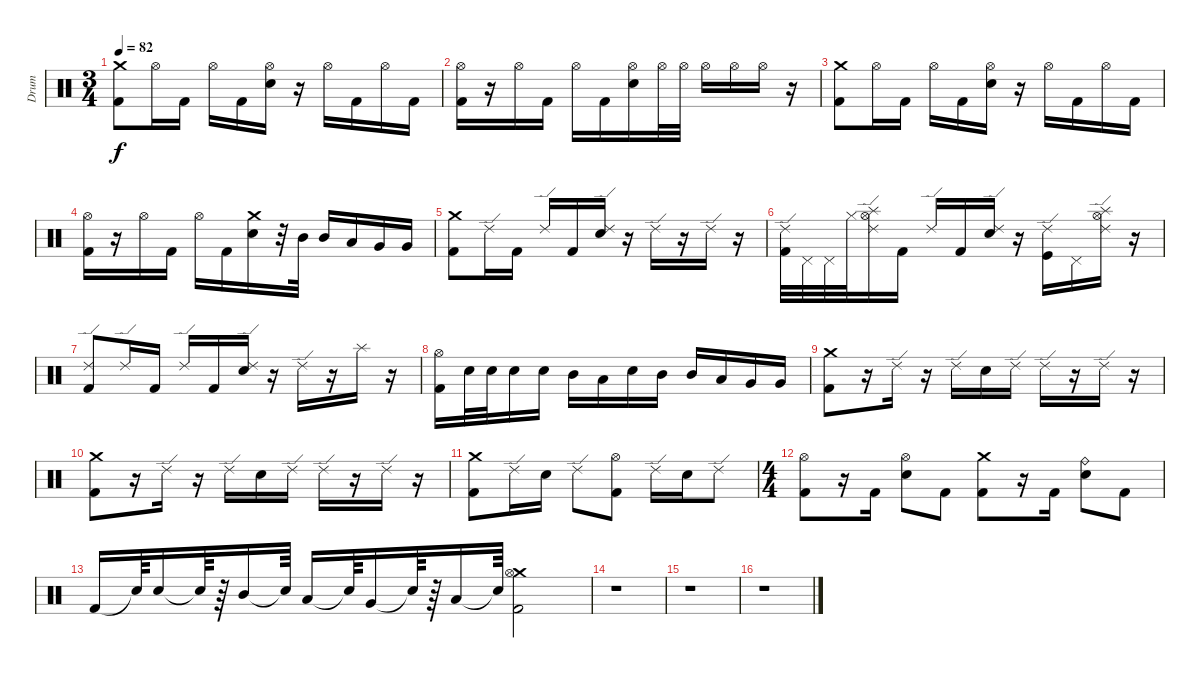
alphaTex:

\track ("Drum" "Drum") {instrument percussion}
\staff {score}
\articulation defaults
\ts (3 4)
\tempo 82
\clef neutral
\ks c
("Crash medium (hit)" "Kick (hit) 2").8{dy f} "Hi-Hat (open)".16 "Kick (hit) 2".16 "Hi-Hat (open)".16 "Kick (hit) 2".16 ("Hi-Hat (open)" "Electric Snare (hit)").16 r.16 "Hi-Hat (open)".16 "Kick (hit) 2".16 "Hi-Hat (open)".16 "Kick (hit) 2".16 |
("Hi-Hat (open)" "Kick (hit) 2").16 r.16 "Hi-Hat (open)".16 "Kick (hit) 2".16 "Hi-Hat (open)".16 "Kick (hit) 2".16 ("Hi-Hat (open)" "Electric Snare (hit)").16 "Hi-Hat (open)".32 "Hi-Hat (open)".32 "Hi-Hat (open)".16 "Hi-Hat (open)".16 "Hi-Hat (open)".16 r.16 |
("Crash medium (hit)" "Kick (hit) 2").8 "Hi-Hat (open)".16 "Kick (hit) 2".16 "Hi-Hat (open)".16 "Kick (hit) 2".16 ("Hi-Hat (open)" "Electric Snare (hit)").16 r.16 "Hi-Hat (open)".16 "Kick (hit) 2".16 "Hi-Hat (open)".16 "Kick (hit) 2".16 |
("Hi-Hat (open)" "Kick (hit) 2").16 r.16 "Hi-Hat (open)".16 "Kick (hit) 2".16 "Hi-Hat (open)".16 "Kick (hit) 2".16 ("Crash medium (hit)" "Electric Snare (hit)").16 r.32 "Mid Tom (hit)".32 "Mid Tom (hit)".16 "Low Tom (hit)".16 "Very Low Tom (hit)".16 "Very Low Tom (hit)".16 |
("Crash medium (hit)" "Kick (hit) 2").8 "Ride (edge) 2".16 "Kick (hit) 2".16 "Ride (edge) 2".16 "Kick (hit) 2".16 ("Ride (edge) 2" "Electric Snare (hit)").16 r.16 "Ride (edge) 2".16 r.16 "Ride (edge) 2".16 r.16 |
("Ride (edge) 2" "Kick (hit) 2").32 "Pedal Hi-Hat (hit)".32 "Pedal Hi-Hat (hit)".32 "Hi-Hat (closed)".32 ("Splash (hit)" "Hi-Hat (open)" "Ride (edge) 2").16 "Kick (hit) 2".16 "Ride (edge) 2".16 "Kick (hit) 2".16 ("Ride (edge) 2" "Electric Snare (hit)").16 r.16 ("Kick (hit)" "Ride (edge) 2").16 "Pedal Hi-Hat (hit)".16 ("Splash (hit)" "Hi-Hat (open)" "Ride (edge) 2").16 r.16 |
("Ride (edge) 2" "Kick (hit) 2").8 "Ride (edge) 2".16 "Kick (hit) 2".16 "Ride (edge) 2".16 "Kick (hit) 2".16 ("Ride (edge) 2" "Electric Snare (hit)").16 r.16 "Ride (edge) 2".16 r.16 "Splash (hit)".16 r.16 |
("Hi-Hat (open)" "Kick (hit) 2").16 "Electric Snare (hit)".32 "Electric Snare (hit)".32 "Electric Snare (hit)".16 "Electric Snare (hit)".16 "Mid Tom (hit)".16 "Low Tom (hit)".16 "Electric Snare (hit)".16 "Mid Tom (hit)".16 "Mid Tom (hit)".16 "Low Tom (hit)".16 "Very Low Tom (hit)".16 "Very Low Tom (hit)".16 |
("Crash medium (hit)" "Kick (hit) 2").8 r.16 "Ride (edge) 2".16 r.16 "Ride (edge) 2".16 "Electric Snare (hit)".16 "Ride (edge) 2".16 "Ride (edge) 2".16 r.16 "Ride (edge) 2".16 r.16 |
("Crash medium (hit)" "Kick (hit) 2").8 r.16 "Ride (edge) 2".16 r.16 "Ride (edge) 2".16 "Electric Snare (hit)".16 "Ride (edge) 2".16 "Ride (edge) 2".16 r.16 "Ride (edge) 2".16 r.16 |
("Crash medium (hit)" "Kick (hit) 2").8 "Ride (edge) 2".16 "Electric Snare (hit)".16 "Ride (edge) 2".8 ("Hi-Hat (open)" "Kick (hit) 2").8 "Ride (edge) 2".16 "Electric Snare (hit)".16 "Ride (edge) 2".8 |
\ts (4 4)
("Hi-Hat (open)" "Kick (hit) 2").8 r.16 "Kick (hit) 2".16 ("Hi-Hat (open)" "Electric Snare (hit)").8 "Kick (hit) 2".8 ("Kick (hit) 2" "Crash medium (hit)").8 r.16 "Kick (hit) 2".16 ("Ride (bell)" "Electric Snare (hit)").8 "Kick (hit) 2".8 |
"Kick (hit) 2".16 "Snare (hit)"{t}.64 "Electric Snare (hit)".16 "Snare (hit)"{t}.64 r.64 "Mid Tom (hit)".16 "Snare (hit)"{t}.64 "Low Tom (hit)".16 "Snare (hit)"{t}.64 "Very Low Tom (hit)".16 "Snare (hit)"{t}.64 r.64 "Low Floor Tom (hit)".16 "Snare (hit)"{t}.64 ("Crash medium (hit)" "Hi-Hat (open)" "Kick (hit) 2").2 |
r.1 |
r.1 |
r.1
